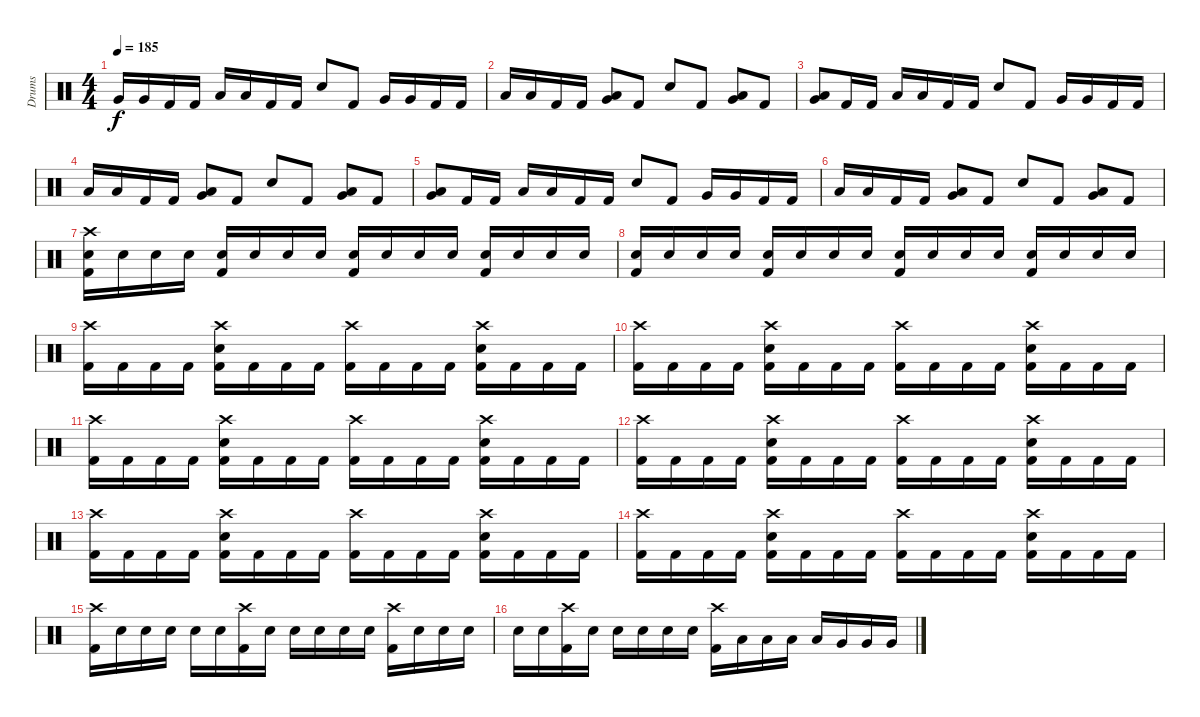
\track ("Drums" "Drums") {instrument percussion}
\staff {score}
\articulation defaults
\ts (4 4)
\tempo 185
\clef neutral
\ks c "Very Low Tom (hit)".16{dy f} "Very Low Tom (hit)".16 "Kick (hit) 2".16 "Kick (hit) 2".16 "Low Floor Tom (hit)".16 "Low Floor Tom (hit)".16 "Kick (hit) 2".16 "Kick (hit) 2".16 "Snare (hit) 2".8 "Kick (hit) 2".8 "Very Low Tom (hit)".16 "Very Low Tom (hit)".16 "Kick (hit) 2".16 "Kick (hit) 2".16
|
"Low Floor Tom (hit)".16 "Low Floor Tom (hit)".16 "Kick (hit) 2".16 "Kick (hit) 2".16 ("Very Low Tom (hit)" "Low Floor Tom (hit)").8 "Kick (hit) 2".8 "Snare (hit) 2".8 "Kick (hit) 2".8 ("Low Floor Tom (hit)" "Very Low Tom (hit)").8 "Kick (hit) 2".8 |
("Low Floor Tom (hit)" "Very Low Tom (hit)").8 "Kick (hit) 2".16 "Kick (hit) 2".16 "Low Floor Tom (hit)".16 "Low Floor Tom (hit)".16 "Kick (hit) 2".16 "Kick (hit) 2".16 "Snare (hit) 2".8 "Kick (hit) 2".8 "Very Low Tom (hit)".16 "Very Low Tom (hit)".16 "Kick (hit) 2".16 "Kick (hit) 2".16 |
"Low Floor Tom (hit)".16 "Low Floor Tom (hit)".16 "Kick (hit) 2".16 "Kick (hit) 2".16 ("Very Low Tom (hit)" "Low Floor Tom (hit)").8 "Kick (hit) 2".8 "Snare (hit) 2".8 "Kick (hit) 2".8 ("Low Floor Tom (hit)" "Very Low Tom (hit)").8 "Kick (hit) 2".8 |
("Low Floor Tom (hit)" "Very Low Tom (hit)").8 "Kick (hit) 2".16 "Kick (hit) 2".16 "Low Floor Tom (hit)".16 "Low Floor Tom (hit)".16 "Kick (hit) 2".16 "Kick (hit) 2".16 "Snare (hit) 2".8 "Kick (hit) 2".8 "Very Low Tom (hit)".16 "Very Low Tom (hit)".16 "Kick (hit) 2".16 "Kick (hit) 2".16 |
"Low Floor Tom (hit)".16 "Low Floor Tom (hit)".16 "Kick (hit) 2".16 "Kick (hit) 2".16 ("Very Low Tom (hit)" "Low Floor Tom (hit)").8 "Kick (hit) 2".8 "Snare (hit) 2".8 "Kick (hit) 2".8 ("Low Floor Tom (hit)" "Very Low Tom (hit)").8 "Kick (hit) 2".8 |
("Crash high (hit)" "Kick (hit) 2" "Snare (hit) 2").16{volume 7} "Snare (hit) 2".16 "Snare (hit) 2".16 "Snare (hit) 2".16 ("Kick (hit) 2" "Snare (hit) 2").16{volume 8} "Snare (hit) 2".16 "Snare (hit) 2".16 "Snare (hit) 2".16 ("Kick (hit) 2" "Snare (hit) 2").16{volume 9} "Snare (hit) 2".16 "Snare (hit) 2".16 "Snare (hit) 2".16 ("Kick (hit) 2" "Snare (hit) 2").16{volume 10} "Snare (hit) 2".16 "Snare (hit) 2".16 "Snare (hit) 2".16 |
("Kick (hit) 2" "Snare (hit) 2").16{volume 11} "Snare (hit) 2".16 "Snare (hit) 2".16 "Snare (hit) 2".16 ("Kick (hit) 2" "Snare (hit) 2").16{volume 12} "Snare (hit) 2".16 "Snare (hit) 2".16 "Snare (hit) 2".16 ("Kick (hit) 2" "Snare (hit) 2").16{volume 13} "Snare (hit) 2".16 "Snare (hit) 2".16 "Snare (hit) 2".16 ("Kick (hit) 2" "Snare (hit) 2").16{volume 14} "Snare (hit) 2".16 "Snare (hit) 2".16 "Snare (hit) 2".16 |
("Crash high (hit)" "Kick (hit) 2").16 "Kick (hit) 2".16 "Kick (hit) 2".16 "Kick (hit) 2".16 ("Crash high (hit)" "Snare (hit) 2" "Kick (hit) 2").16 "Kick (hit) 2".16 "Kick (hit) 2".16 "Kick (hit) 2".16 ("Crash high (hit)" "Kick (hit) 2").16 "Kick (hit) 2".16 "Kick (hit) 2".16 "Kick (hit) 2".16 ("Crash high (hit)" "Snare (hit) 2" "Kick (hit) 2").16 "Kick (hit) 2".16 "Kick (hit) 2".16 "Kick (hit) 2".16 |
("Crash high (hit)" "Kick (hit) 2").16 "Kick (hit) 2".16 "Kick (hit) 2".16 "Kick (hit) 2".16 ("Crash high (hit)" "Snare (hit) 2" "Kick (hit) 2").16 "Kick (hit) 2".16 "Kick (hit) 2".16 "Kick (hit) 2".16 ("Crash high (hit)" "Kick (hit) 2").16 "Kick (hit) 2".16 "Kick (hit) 2".16 "Kick (hit) 2".16 ("Crash high (hit)" "Snare (hit) 2" "Kick (hit) 2").16 "Kick (hit) 2".16 "Kick (hit) 2".16 "Kick (hit) 2".16 |
("Crash high (hit)" "Kick (hit) 2").16 "Kick (hit) 2".16 "Kick (hit) 2".16 "Kick (hit) 2".16 ("Crash high (hit)" "Snare (hit) 2" "Kick (hit) 2").16 "Kick (hit) 2".16 "Kick (hit) 2".16 "Kick (hit) 2".16 ("Crash high (hit)" "Kick (hit) 2").16 "Kick (hit) 2".16 "Kick (hit) 2".16 "Kick (hit) 2".16 ("Crash high (hit)" "Snare (hit) 2" "Kick (hit) 2").16 "Kick (hit) 2".16 "Kick (hit) 2".16 "Kick (hit) 2".16 |
("Crash high (hit)" "Kick (hit) 2").16 "Kick (hit) 2".16 "Kick (hit) 2".16 "Kick (hit) 2".16 ("Crash high (hit)" "Snare (hit) 2" "Kick (hit) 2").16 "Kick (hit) 2".16 "Kick (hit) 2".16 "Kick (hit) 2".16 ("Crash high (hit)" "Kick (hit) 2").16 "Kick (hit) 2".16 "Kick (hit) 2".16 "Kick (hit) 2".16 ("Crash high (hit)" "Snare (hit) 2" "Kick (hit) 2").16 "Kick (hit) 2".16 "Kick (hit) 2".16 "Kick (hit) 2".16 |
("Crash high (hit)" "Kick (hit) 2").16 "Kick (hit) 2".16 "Kick (hit) 2".16 "Kick (hit) 2".16 ("Crash high (hit)" "Snare (hit) 2" "Kick (hit) 2").16 "Kick (hit) 2".16 "Kick (hit) 2".16 "Kick (hit) 2".16 ("Crash high (hit)" "Kick (hit) 2").16 "Kick (hit) 2".16 "Kick (hit) 2".16 "Kick (hit) 2".16 ("Crash high (hit)" "Snare (hit) 2" "Kick (hit) 2").16 "Kick (hit) 2".16 "Kick (hit) 2".16 "Kick (hit) 2".16 |
("Crash high (hit)" "Kick (hit) 2").16 "Kick (hit) 2".16 "Kick (hit) 2".16 "Kick (hit) 2".16 ("Crash high (hit)" "Snare (hit) 2" "Kick (hit) 2").16 "Kick (hit) 2".16 "Kick (hit) 2".16 "Kick (hit) 2".16 ("Crash high (hit)" "Kick (hit) 2").16 "Kick (hit) 2".16 "Kick (hit) 2".16 "Kick (hit) 2".16 ("Crash high (hit)" "Snare (hit) 2" "Kick (hit) 2").16 "Kick (hit) 2".16 "Kick (hit) 2".16 "Kick (hit) 2".16 |
("Crash high (hit)" "Kick (hit) 2").16 "Snare (hit) 2".16 "Snare (hit) 2".16 "Snare (hit) 2".16 "Snare (hit) 2".16 "Snare (hit) 2".16 ("Crash high (hit)" "Kick (hit) 2").16 "Snare (hit) 2".16 "Snare (hit) 2".16 "Snare (hit) 2".16 "Snare (hit) 2".16 "Snare (hit) 2".16 ("Crash high (hit)" "Kick (hit) 2").16 "Snare (hit) 2".16 "Snare (hit) 2".16 "Snare (hit) 2".16 |
"Snare (hit) 2".16 "Snare (hit) 2".16 ("Crash high (hit)" "Kick (hit) 2").16 "Snare (hit) 2".16 "Snare (hit) 2".16 "Snare (hit) 2".16 "Snare (hit) 2".16 "Snare (hit) 2".16 ("Crash high (hit)" "Kick (hit) 2").16 "Low Tom (hit)".16 "Low Tom (hit)".16 "Low Tom (hit)".16 "Low Tom (hit)".16 "Very Low Tom (hit)".16 "Very Low Tom (hit)".16 "Very Low Tom (hit)".16
